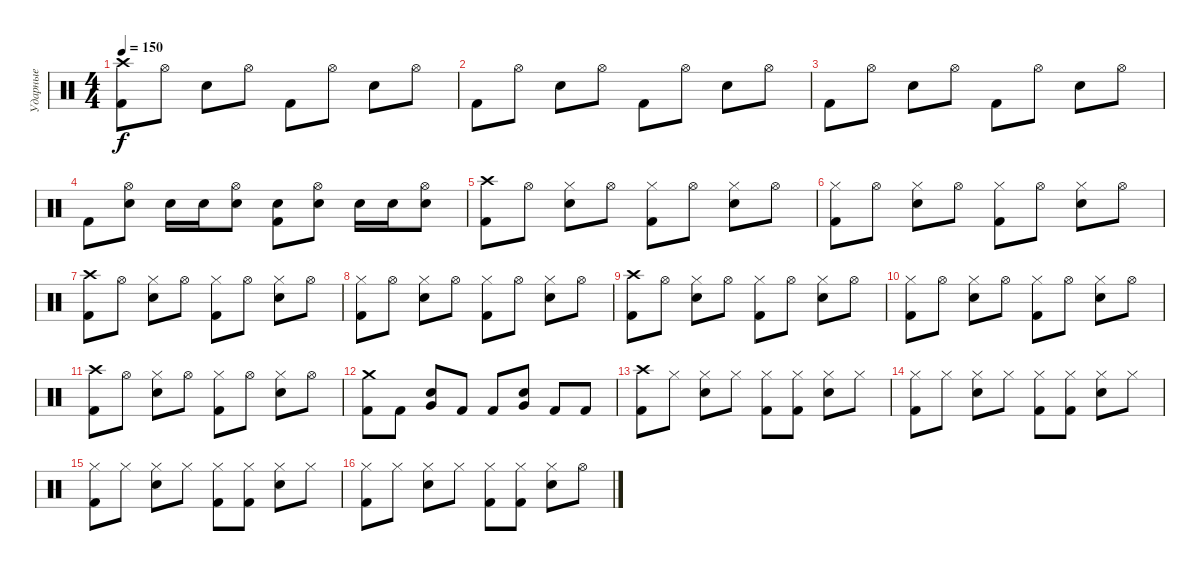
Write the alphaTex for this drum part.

\track ("Ударные" "Ударные") {instrument percussion}
\staff {score}
\articulation defaults
\ts (4 4)
\tempo 150
\clef neutral
\ks c
("Crash high (hit)" "Kick (hit) 2").8{dy f} "Hi-Hat (open)".8 "Electric Snare (hit)".8 "Hi-Hat (open)".8 "Kick (hit) 2".8 "Hi-Hat (open)".8 "Electric Snare (hit)".8 "Hi-Hat (open)".8 |
"Kick (hit) 2".8 "Hi-Hat (open)".8 "Electric Snare (hit)".8 "Hi-Hat (open)".8 "Kick (hit) 2".8 "Hi-Hat (open)".8 "Electric Snare (hit)".8 "Hi-Hat (open)".8 |
"Kick (hit) 2".8 "Hi-Hat (open)".8 "Electric Snare (hit)".8 "Hi-Hat (open)".8 "Kick (hit) 2".8 "Hi-Hat (open)".8 "Electric Snare (hit)".8 "Hi-Hat (open)".8 |
"Kick (hit) 2".8 ("Hi-Hat (open)" "Electric Snare (hit)").8 "Electric Snare (hit)".16 "Electric Snare (hit)".16 ("Hi-Hat (open)" "Electric Snare (hit)").8 ("Electric Snare (hit)" "Kick (hit) 2").8 ("Hi-Hat (open)" "Electric Snare (hit)").8 "Electric Snare (hit)".16 "Electric Snare (hit)".16 ("Hi-Hat (open)" "Electric Snare (hit)").8 |
("Crash high (hit)" "Kick (hit) 2").8 "Hi-Hat (open)".8 ("Hi-Hat (closed)" "Electric Snare (hit)").8 "Hi-Hat (open)".8 ("Hi-Hat (closed)" "Kick (hit) 2").8 "Hi-Hat (open)".8 ("Hi-Hat (closed)" "Electric Snare (hit)").8 "Hi-Hat (open)".8 |
("Hi-Hat (closed)" "Kick (hit) 2").8 "Hi-Hat (open)".8 ("Hi-Hat (closed)" "Electric Snare (hit)").8 "Hi-Hat (open)".8 ("Hi-Hat (closed)" "Kick (hit) 2").8 "Hi-Hat (open)".8 ("Hi-Hat (closed)" "Electric Snare (hit)").8 "Hi-Hat (open)".8 |
("Crash high (hit)" "Kick (hit) 2").8 "Hi-Hat (open)".8 ("Hi-Hat (closed)" "Electric Snare (hit)").8 "Hi-Hat (open)".8 ("Hi-Hat (closed)" "Kick (hit) 2").8 "Hi-Hat (open)".8 ("Hi-Hat (closed)" "Electric Snare (hit)").8 "Hi-Hat (open)".8 |
("Hi-Hat (closed)" "Kick (hit) 2").8 "Hi-Hat (open)".8 ("Hi-Hat (closed)" "Electric Snare (hit)").8 "Hi-Hat (open)".8 ("Hi-Hat (closed)" "Kick (hit) 2").8 "Hi-Hat (open)".8 ("Hi-Hat (closed)" "Electric Snare (hit)").8 "Hi-Hat (open)".8 |
("Crash high (hit)" "Kick (hit) 2").8 "Hi-Hat (open)".8 ("Hi-Hat (closed)" "Electric Snare (hit)").8 "Hi-Hat (open)".8 ("Hi-Hat (closed)" "Kick (hit) 2").8 "Hi-Hat (open)".8 ("Hi-Hat (closed)" "Electric Snare (hit)").8 "Hi-Hat (open)".8 |
("Hi-Hat (closed)" "Kick (hit) 2").8 "Hi-Hat (open)".8 ("Hi-Hat (closed)" "Electric Snare (hit)").8 "Hi-Hat (open)".8 ("Hi-Hat (closed)" "Kick (hit) 2").8 "Hi-Hat (open)".8 ("Hi-Hat (closed)" "Electric Snare (hit)").8 "Hi-Hat (open)".8 |
("Crash high (hit)" "Kick (hit) 2").8 "Hi-Hat (open)".8 ("Hi-Hat (closed)" "Electric Snare (hit)").8 "Hi-Hat (open)".8 ("Hi-Hat (closed)" "Kick (hit) 2").8 "Hi-Hat (open)".8 ("Hi-Hat (closed)" "Electric Snare (hit)").8 "Hi-Hat (open)".8 |
("Crash medium (hit)" "Kick (hit) 2").8 "Kick (hit) 2".8 ("Very Low Tom (hit)" "Electric Snare (hit)").8 "Kick (hit) 2".8 "Kick (hit) 2".8 ("Very Low Tom (hit)" "Electric Snare (hit)").8 "Kick (hit) 2".8 "Kick (hit) 2".8 |
("Crash high (hit)" "Kick (hit) 2").8 "Hi-Hat (closed)".8 ("Hi-Hat (closed)" "Electric Snare (hit)").8 "Hi-Hat (closed)".8 ("Hi-Hat (closed)" "Kick (hit) 2").8 ("Hi-Hat (closed)" "Kick (hit) 2").8 ("Hi-Hat (closed)" "Electric Snare (hit)").8 "Hi-Hat (closed)".8 |
("Hi-Hat (closed)" "Kick (hit) 2").8 "Hi-Hat (closed)".8 ("Hi-Hat (closed)" "Electric Snare (hit)").8 "Hi-Hat (closed)".8 ("Hi-Hat (closed)" "Kick (hit) 2").8 ("Hi-Hat (closed)" "Kick (hit) 2").8 ("Hi-Hat (closed)" "Electric Snare (hit)").8 "Hi-Hat (closed)".8 |
("Hi-Hat (closed)" "Kick (hit) 2").8 "Hi-Hat (closed)".8 ("Hi-Hat (closed)" "Electric Snare (hit)").8 "Hi-Hat (closed)".8 ("Hi-Hat (closed)" "Kick (hit) 2").8 ("Hi-Hat (closed)" "Kick (hit) 2").8 ("Hi-Hat (closed)" "Electric Snare (hit)").8 "Hi-Hat (closed)".8 |
("Hi-Hat (closed)" "Kick (hit) 2").8 "Hi-Hat (closed)".8 ("Hi-Hat (closed)" "Electric Snare (hit)").8 "Hi-Hat (closed)".8 ("Hi-Hat (closed)" "Kick (hit) 2").8 ("Hi-Hat (closed)" "Kick (hit) 2").8 ("Hi-Hat (closed)" "Electric Snare (hit)").8 "Hi-Hat (open)".8
